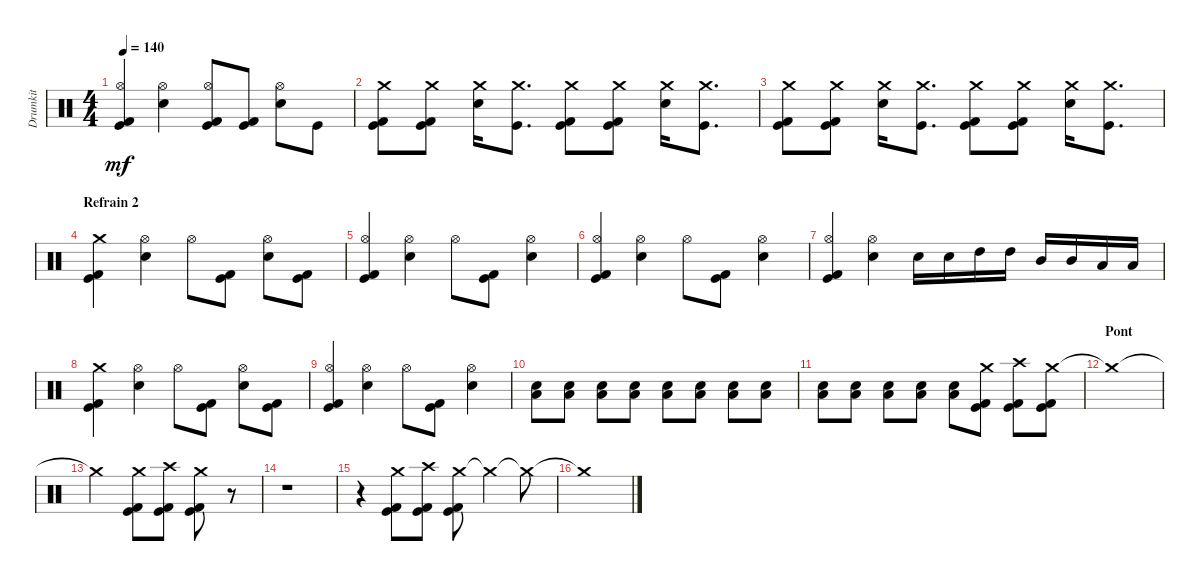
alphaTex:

\track ("Drumkit" "Drumkit") {instrument percussion}
\staff {score}
\articulation defaults
\ts (4 4)
\tempo 140
\clef neutral
\ks c
("Kick (hit) 2" "Hi-Hat (open)" "Kick (hit)").4{dy mf} ("Hi-Hat (open)" "Snare (hit) 2").4 ("Kick (hit) 2" "Hi-Hat (open)" "Kick (hit)").8 ("Kick (hit) 2" "Kick (hit)").8 ("Hi-Hat (open)" "Snare (hit) 2").8 "Kick (hit)".8 |
("Crash medium (hit)" "Kick (hit) 2" "Kick (hit)").8 ("Crash medium (hit)" "Kick (hit) 2" "Kick (hit)").8 ("Crash medium (hit)" "Snare (hit) 2").16 ("Crash medium (hit)" "Kick (hit)").8{d} ("Crash medium (hit)" "Kick (hit) 2" "Kick (hit)").8 ("Crash medium (hit)" "Kick (hit) 2" "Kick (hit)").8 ("Crash medium (hit)" "Snare (hit) 2").16 ("Crash medium (hit)" "Kick (hit)").8{d} |
("Crash medium (hit)" "Kick (hit) 2" "Kick (hit)").8 ("Crash medium (hit)" "Kick (hit) 2" "Kick (hit)").8 ("Crash medium (hit)" "Snare (hit) 2").16 ("Crash medium (hit)" "Kick (hit)").8{d} ("Crash medium (hit)" "Kick (hit) 2" "Kick (hit)").8 ("Crash medium (hit)" "Kick (hit) 2" "Kick (hit)").8 ("Crash medium (hit)" "Snare (hit) 2").16 ("Crash medium (hit)" "Kick (hit)").8{d} |
\section ("" "Refrain 2")
("Crash medium (hit)" "Kick (hit) 2" "Kick (hit)").4 ("Hi-Hat (open)" "Snare (hit) 2").4 "Hi-Hat (open)".8 ("Kick (hit) 2" "Kick (hit)").8 ("Hi-Hat (open)" "Snare (hit) 2").8 ("Kick (hit) 2" "Kick (hit)").8 |
("Kick (hit) 2" "Hi-Hat (open)" "Kick (hit)").4 ("Hi-Hat (open)" "Snare (hit) 2").4 "Hi-Hat (open)".8 ("Kick (hit) 2" "Kick (hit)").8 ("Hi-Hat (open)" "Snare (hit) 2").4 |
("Kick (hit) 2" "Hi-Hat (open)" "Kick (hit)").4 ("Hi-Hat (open)" "Snare (hit) 2").4 "Hi-Hat (open)".8 ("Kick (hit) 2" "Kick (hit)").8 ("Hi-Hat (open)" "Snare (hit) 2").4 |
("Kick (hit) 2" "Hi-Hat (open)" "Kick (hit)").4 ("Hi-Hat (open)" "Snare (hit) 2").4 "Snare (hit) 2".16 "Snare (hit) 2".16 "High Tom (hit)".16 "High Tom (hit)".16 "Mid Tom (hit)".16 "Mid Tom (hit)".16 "Low Tom (hit)".16 "Low Tom (hit)".16 |
("Crash medium (hit)" "Kick (hit) 2" "Kick (hit)").4 ("Hi-Hat (open)" "Snare (hit) 2").4 "Hi-Hat (open)".8 ("Kick (hit) 2" "Kick (hit)").8 ("Hi-Hat (open)" "Snare (hit) 2").8 ("Kick (hit) 2" "Kick (hit)").8 |
("Kick (hit) 2" "Hi-Hat (open)" "Kick (hit)").4 ("Hi-Hat (open)" "Snare (hit) 2").4 "Hi-Hat (open)".8 ("Kick (hit) 2" "Kick (hit)").8 ("Hi-Hat (open)" "Snare (hit) 2").4 |
("Snare (hit) 2" "Low Tom (hit)").8 ("Snare (hit) 2" "Low Tom (hit)").8 ("Snare (hit) 2" "Low Tom (hit)").8 ("Snare (hit) 2" "Low Tom (hit)").8 ("Snare (hit) 2" "Low Tom (hit)").8 ("Snare (hit) 2" "Low Tom (hit)").8 ("Snare (hit) 2" "Low Tom (hit)").8 ("Snare (hit) 2" "Low Tom (hit)").8 |
("Snare (hit) 2" "Low Tom (hit)").8 ("Snare (hit) 2" "Low Tom (hit)").8 ("Snare (hit) 2" "Low Tom (hit)").8 ("Snare (hit) 2" "Low Tom (hit)").8 ("Snare (hit) 2" "Low Tom (hit)").8 ("Crash medium (hit)" "Kick (hit) 2" "Kick (hit)").8 ("Crash high (hit)" "Kick (hit) 2" "Kick (hit)").8 ("Crash medium (hit)" "Kick (hit) 2" "Kick (hit)").8 |
\section ("" "Pont")
"Crash medium (hit)"{t}.1 |
"Crash medium (hit)"{t}.2 ("Crash medium (hit)" "Kick (hit) 2" "Kick (hit)").8 ("Crash high (hit)" "Kick (hit) 2" "Kick (hit)").8 ("Crash medium (hit)" "Kick (hit) 2" "Kick (hit)").8 r.8 |
r.1 |
r.4 ("Crash medium (hit)" "Kick (hit) 2" "Kick (hit)").8 ("Crash high (hit)" "Kick (hit) 2" "Kick (hit)").8 ("Crash medium (hit)" "Kick (hit) 2" "Kick (hit)").8 "Crash medium (hit)"{t}.4 "Crash medium (hit)"{t}.8 |
"Crash medium (hit)"{t}.1
